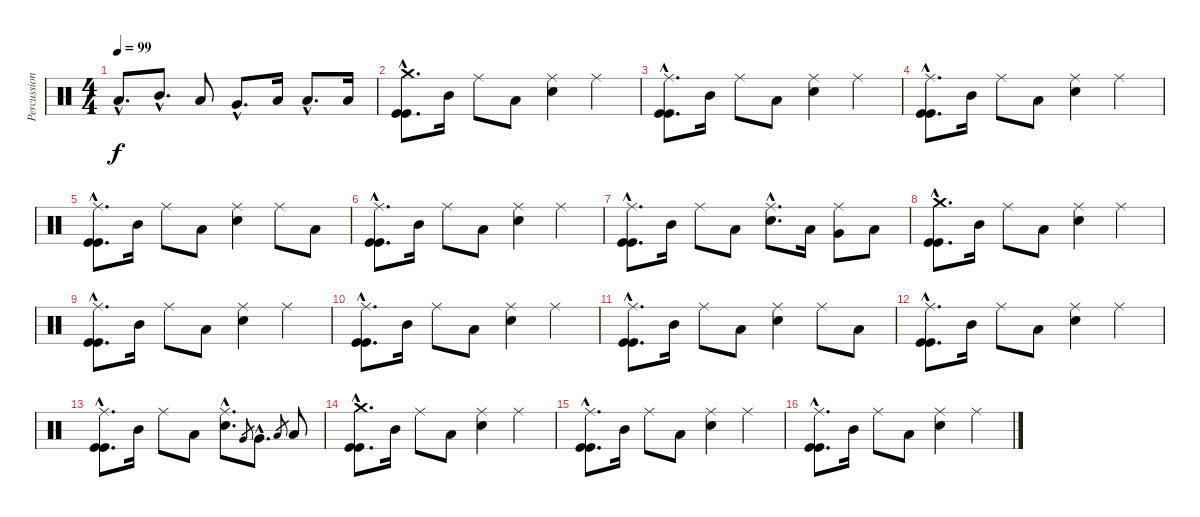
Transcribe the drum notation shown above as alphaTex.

\track ("Percussions2" "Percussion") {instrument percussion}
\staff {score}
\articulation defaults
\ts (4 4)
\tempo 99
\clef neutral
\ks c "Low Floor Tom (hit)"{hac}.8{d dy f} "Mid Tom (hit)"{hac}.8{d} "Low Tom (hit)".8 "Very Low Tom (hit)"{hac}.8{d} "Low Floor Tom (hit)".16 "Low Floor Tom (hit)"{hac}.8{d} "Low Floor Tom (hit)".16
|
("Crash medium (hit)"{hac} "Kick (hit)"{hac} "Kick (hit)"{hac}).8{d} "Mid Tom (hit)".16 "Ride (middle)".8 "Low Tom (hit)".8 ("Electric Snare (hit)" "Ride (middle)").4 "Ride (middle)".4 |
("Ride (middle)"{hac} "Kick (hit)"{hac} "Kick (hit)"{hac}).8{d} "Mid Tom (hit)".16 "Ride (middle)".8 "Low Tom (hit)".8 ("Electric Snare (hit)" "Ride (middle)").4 "Ride (middle)".4 |
("Ride (middle)"{hac} "Kick (hit)"{hac} "Kick (hit)"{hac}).8{d} "Mid Tom (hit)".16 "Ride (middle)".8 "Low Tom (hit)".8 ("Electric Snare (hit)" "Ride (middle)").4 "Ride (middle)".4 |
("Ride (middle)"{hac} "Kick (hit)"{hac} "Kick (hit)"{hac}).8{d} "Mid Tom (hit)".16 "Ride (middle)".8 "Low Tom (hit)".8 ("Electric Snare (hit)" "Ride (middle)").4 "Ride (middle)".8 "Low Tom (hit)".8 |
("Ride (middle)"{hac} "Kick (hit)"{hac} "Kick (hit)"{hac}).8{d} "Mid Tom (hit)".16 "Ride (middle)".8 "Low Tom (hit)".8 ("Electric Snare (hit)" "Ride (middle)").4 "Ride (middle)".4 |
("Ride (middle)"{hac} "Kick (hit)"{hac} "Kick (hit)"{hac}).8{d} "Mid Tom (hit)".16 "Ride (middle)".8 "Low Tom (hit)".8 ("Electric Snare (hit)"{hac} "Ride (middle)"{hac}).8{d} "Low Tom (hit)".16 ("Very Low Tom (hit)" "Ride (middle)").8 "Low Floor Tom (hit)".8 |
("Crash medium (hit)"{hac} "Kick (hit)"{hac} "Kick (hit)"{hac}).8{d} "Mid Tom (hit)".16 "Ride (middle)".8 "Low Tom (hit)".8 ("Electric Snare (hit)" "Ride (middle)").4 "Ride (middle)".4 |
("Ride (middle)"{hac} "Kick (hit)"{hac} "Kick (hit)"{hac}).8{d} "Mid Tom (hit)".16 "Ride (middle)".8 "Low Tom (hit)".8 ("Electric Snare (hit)" "Ride (middle)").4 "Ride (middle)".4 |
("Ride (middle)"{hac} "Kick (hit)"{hac} "Kick (hit)"{hac}).8{d} "Mid Tom (hit)".16 "Ride (middle)".8 "Low Tom (hit)".8 ("Electric Snare (hit)" "Ride (middle)").4 "Ride (middle)".4 |
("Ride (middle)"{hac} "Kick (hit)"{hac} "Kick (hit)"{hac}).8{d} "Mid Tom (hit)".16 "Ride (middle)".8 "Low Tom (hit)".8 ("Electric Snare (hit)" "Ride (middle)").4 "Ride (middle)".8 "Low Tom (hit)".8 |
("Ride (middle)"{hac} "Kick (hit)"{hac} "Kick (hit)"{hac}).8{d} "Mid Tom (hit)".16 "Ride (middle)".8 "Low Tom (hit)".8 ("Electric Snare (hit)" "Ride (middle)").4 "Ride (middle)".4 |
("Ride (middle)"{hac} "Kick (hit)"{hac} "Kick (hit)"{hac}).8{d} "Mid Tom (hit)".16 "Ride (middle)".8 "Low Tom (hit)".8 ("Electric Snare (hit)"{hac} "Ride (middle)"{hac}).8{d} "Very Low Tom (hit)".8{gr} "Very Low Tom (hit)"{hac}.8{d} "Low Floor Tom (hit)".8{gr} "Low Floor Tom (hit)".8 |
("Crash medium (hit)"{hac} "Kick (hit)"{hac} "Kick (hit)"{hac}).8{d} "Mid Tom (hit)".16 "Ride (middle)".8 "Low Tom (hit)".8 ("Electric Snare (hit)" "Ride (middle)").4 "Ride (middle)".4 |
("Ride (middle)"{hac} "Kick (hit)"{hac} "Kick (hit)"{hac}).8{d} "Mid Tom (hit)".16 "Ride (middle)".8 "Low Tom (hit)".8 ("Electric Snare (hit)" "Ride (middle)").4 "Ride (middle)".4 |
("Ride (middle)"{hac} "Kick (hit)"{hac} "Kick (hit)"{hac}).8{d} "Mid Tom (hit)".16 "Ride (middle)".8 "Low Tom (hit)".8 ("Electric Snare (hit)" "Ride (middle)").4 "Ride (middle)".4
